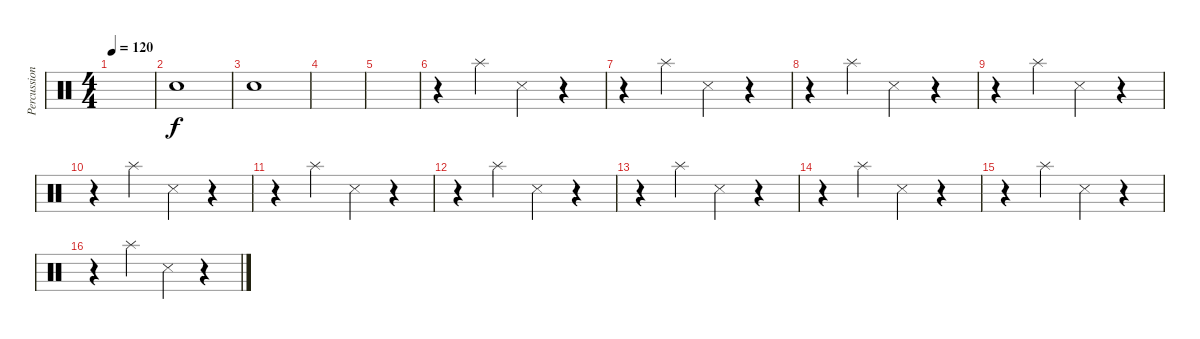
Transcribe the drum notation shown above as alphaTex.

\track ("Percussion" "Percussion") {instrument percussion}
\staff {score}
\articulation defaults
\ts (4 4)
\tempo 120
\clef neutral
\ks c
|
"Snare (hit) 2".1 |
"Snare (hit) 2".1 |
|
|
r.4 "Splash (hit)".4 "Snare (side stick) 3".4 r.4 |
r.4 "Splash (hit)".4 "Snare (side stick) 3".4 r.4 |
r.4 "Splash (hit)".4 "Snare (side stick) 3".4 r.4 |
r.4 "Splash (hit)".4 "Snare (side stick) 3".4 r.4 |
r.4 "Splash (hit)".4 "Snare (side stick) 3".4 r.4 |
r.4 "Splash (hit)".4 "Snare (side stick) 3".4 r.4 |
r.4 "Splash (hit)".4 "Snare (side stick) 3".4 r.4 |
r.4 "Splash (hit)".4 "Snare (side stick) 3".4 r.4 |
r.4 "Splash (hit)".4 "Snare (side stick) 3".4 r.4 |
r.4 "Splash (hit)".4 "Snare (side stick) 3".4 r.4 |
r.4 "Splash (hit)".4 "Snare (side stick) 3".4 r.4
